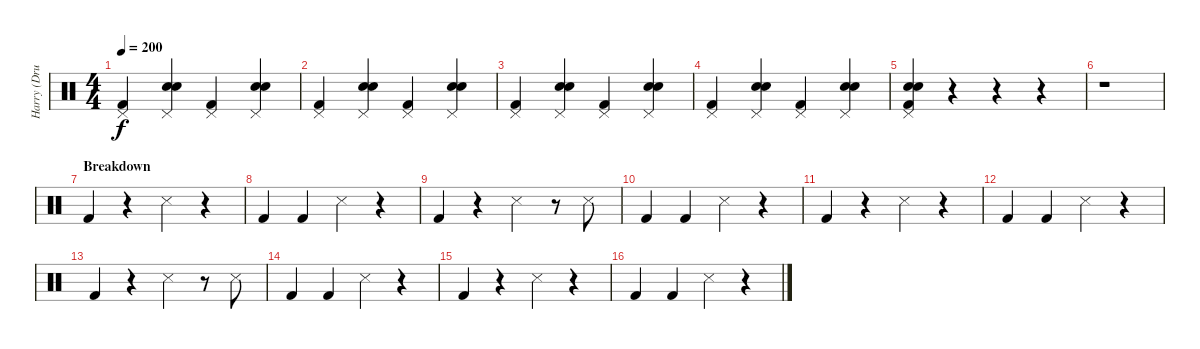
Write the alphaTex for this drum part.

\track ("Harry (Drums)" "Harry (Dru") {instrument percussion}
\staff {score}
\articulation defaults
\ts (4 4)
\tempo 200
\clef neutral
\ks c
("Kick (hit) 2" "Pedal Hi-Hat (hit)").4{dy f} ("Snare (hit) 2" "Electric Snare (hit)" "Pedal Hi-Hat (hit)").4 ("Kick (hit) 2" "Pedal Hi-Hat (hit)").4 ("Snare (hit) 2" "Electric Snare (hit)" "Pedal Hi-Hat (hit)").4 |
("Kick (hit) 2" "Pedal Hi-Hat (hit)").4 ("Snare (hit) 2" "Electric Snare (hit)" "Pedal Hi-Hat (hit)").4 ("Kick (hit) 2" "Pedal Hi-Hat (hit)").4 ("Snare (hit) 2" "Electric Snare (hit)" "Pedal Hi-Hat (hit)").4 |
("Kick (hit) 2" "Pedal Hi-Hat (hit)").4 ("Snare (hit) 2" "Electric Snare (hit)" "Pedal Hi-Hat (hit)").4 ("Kick (hit) 2" "Pedal Hi-Hat (hit)").4 ("Snare (hit) 2" "Electric Snare (hit)" "Pedal Hi-Hat (hit)").4 |
("Kick (hit) 2" "Pedal Hi-Hat (hit)").4 ("Snare (hit) 2" "Electric Snare (hit)" "Pedal Hi-Hat (hit)").4 ("Kick (hit) 2" "Pedal Hi-Hat (hit)").4 ("Snare (hit) 2" "Electric Snare (hit)" "Pedal Hi-Hat (hit)").4 |
("Kick (hit) 2" "Electric Snare (hit)" "Snare (hit) 2" "Pedal Hi-Hat (hit)").4 r.4 r.4 r.4 |
r.1 |
\section ("" "Breakdown")
"Kick (hit) 2".4{volume 13} r.4 "Snare (side stick) 3".4 r.4 |
"Kick (hit) 2".4 "Kick (hit) 2".4 "Snare (side stick) 3".4 r.4 |
"Kick (hit) 2".4 r.4 "Snare (side stick) 3".4 r.8 "Snare (side stick) 3".8 |
"Kick (hit) 2".4 "Kick (hit) 2".4 "Snare (side stick) 3".4 r.4 |
"Kick (hit) 2".4 r.4 "Snare (side stick) 3".4 r.4 |
"Kick (hit) 2".4 "Kick (hit) 2".4 "Snare (side stick) 3".4 r.4 |
"Kick (hit) 2".4 r.4 "Snare (side stick) 3".4 r.8 "Snare (side stick) 3".8 |
"Kick (hit) 2".4 "Kick (hit) 2".4 "Snare (side stick) 3".4 r.4 |
"Kick (hit) 2".4 r.4 "Snare (side stick) 3".4 r.4 |
"Kick (hit) 2".4 "Kick (hit) 2".4 "Snare (side stick) 3".4 r.4
